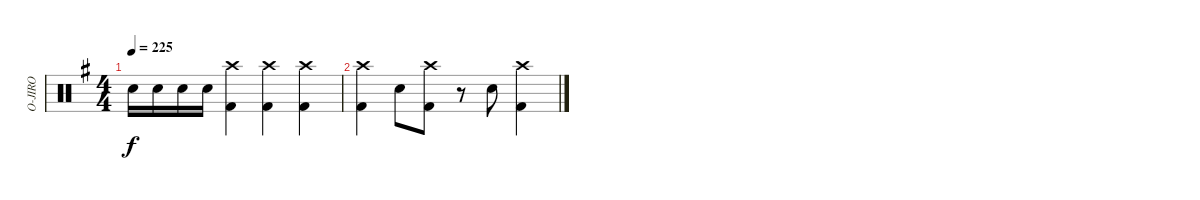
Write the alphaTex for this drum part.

\track ("O-JIRO" "O-JIRO") {instrument percussion}
\staff {score}
\articulation defaults
\ts (4 4)
\tempo 225
\clef neutral
\ks g "Snare (hit) 2".16{dy f} "Snare (hit) 2".16 "Snare (hit) 2".16 "Snare (hit) 2".16
("Crash high (hit)" "Kick (hit) 2").4 ("Crash high (hit)" "Kick (hit) 2").4 ("Crash high (hit)" "Kick (hit) 2").4 |
("Crash high (hit)" "Kick (hit) 2").4 "Snare (hit) 2".8 ("Crash high (hit)" "Kick (hit) 2").8 r.8 "Snare (hit) 2".8 ("Crash high (hit)" "Kick (hit) 2").4
